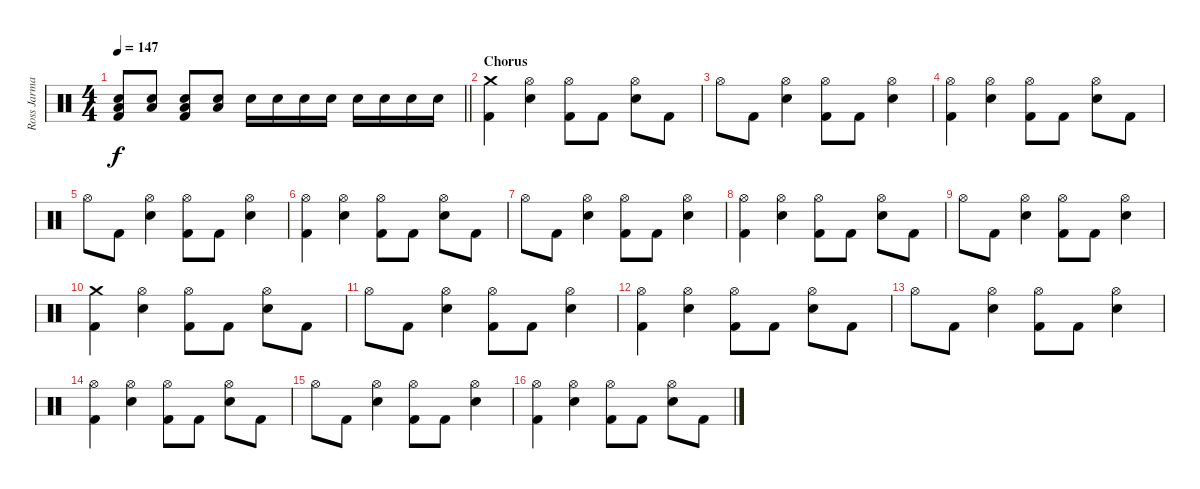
\track ("Ross Jarman (Drums)" "Ross Jarma") {instrument percussion}
\staff {score}
\articulation defaults
\ts (4 4)
\tempo 147
\clef neutral
\barLineRight lightlight
\ks c
("Electric Snare (hit)" "Low Floor Tom (hit)" "Kick (hit) 2").8{dy f} ("Electric Snare (hit)" "Low Floor Tom (hit)").8 ("Electric Snare (hit)" "Low Floor Tom (hit)" "Kick (hit) 2").8 ("Electric Snare (hit)" "Low Floor Tom (hit)").8 "Electric Snare (hit)".16 "Electric Snare (hit)".16 "Electric Snare (hit)".16 "Electric Snare (hit)".16 "Electric Snare (hit)".16 "Electric Snare (hit)".16 "Electric Snare (hit)".16 "Electric Snare (hit)".16 |
\section ("" "Chorus")
("Crash medium (hit)" "Kick (hit) 2").4 ("Hi-Hat (open)" "Electric Snare (hit)").4 ("Hi-Hat (open)" "Kick (hit) 2").8 "Kick (hit) 2".8 ("Hi-Hat (open)" "Electric Snare (hit)").8 "Kick (hit) 2".8 |
"Hi-Hat (open)".8 "Kick (hit) 2".8 ("Hi-Hat (open)" "Electric Snare (hit)").4 ("Hi-Hat (open)" "Kick (hit) 2").8 "Kick (hit) 2".8 ("Hi-Hat (open)" "Electric Snare (hit)").4 |
("Hi-Hat (open)" "Kick (hit) 2").4 ("Hi-Hat (open)" "Electric Snare (hit)").4 ("Hi-Hat (open)" "Kick (hit) 2").8 "Kick (hit) 2".8 ("Hi-Hat (open)" "Electric Snare (hit)").8 "Kick (hit) 2".8 |
"Hi-Hat (open)".8 "Kick (hit) 2".8 ("Hi-Hat (open)" "Electric Snare (hit)").4 ("Hi-Hat (open)" "Kick (hit) 2").8 "Kick (hit) 2".8 ("Hi-Hat (open)" "Electric Snare (hit)").4 |
("Hi-Hat (open)" "Kick (hit) 2").4 ("Hi-Hat (open)" "Electric Snare (hit)").4 ("Hi-Hat (open)" "Kick (hit) 2").8 "Kick (hit) 2".8 ("Hi-Hat (open)" "Electric Snare (hit)").8 "Kick (hit) 2".8 |
"Hi-Hat (open)".8 "Kick (hit) 2".8 ("Hi-Hat (open)" "Electric Snare (hit)").4 ("Hi-Hat (open)" "Kick (hit) 2").8 "Kick (hit) 2".8 ("Hi-Hat (open)" "Electric Snare (hit)").4 |
("Hi-Hat (open)" "Kick (hit) 2").4 ("Hi-Hat (open)" "Electric Snare (hit)").4 ("Hi-Hat (open)" "Kick (hit) 2").8 "Kick (hit) 2".8 ("Hi-Hat (open)" "Electric Snare (hit)").8 "Kick (hit) 2".8 |
"Hi-Hat (open)".8 "Kick (hit) 2".8 ("Hi-Hat (open)" "Electric Snare (hit)").4 ("Hi-Hat (open)" "Kick (hit) 2").8 "Kick (hit) 2".8 ("Hi-Hat (open)" "Electric Snare (hit)").4 |
("Crash medium (hit)" "Kick (hit) 2").4 ("Hi-Hat (open)" "Electric Snare (hit)").4 ("Hi-Hat (open)" "Kick (hit) 2").8 "Kick (hit) 2".8 ("Hi-Hat (open)" "Electric Snare (hit)").8 "Kick (hit) 2".8 |
"Hi-Hat (open)".8 "Kick (hit) 2".8 ("Hi-Hat (open)" "Electric Snare (hit)").4 ("Hi-Hat (open)" "Kick (hit) 2").8 "Kick (hit) 2".8 ("Hi-Hat (open)" "Electric Snare (hit)").4 |
("Hi-Hat (open)" "Kick (hit) 2").4 ("Hi-Hat (open)" "Electric Snare (hit)").4 ("Hi-Hat (open)" "Kick (hit) 2").8 "Kick (hit) 2".8 ("Hi-Hat (open)" "Electric Snare (hit)").8 "Kick (hit) 2".8 |
"Hi-Hat (open)".8 "Kick (hit) 2".8 ("Hi-Hat (open)" "Electric Snare (hit)").4 ("Hi-Hat (open)" "Kick (hit) 2").8 "Kick (hit) 2".8 ("Hi-Hat (open)" "Electric Snare (hit)").4 |
("Hi-Hat (open)" "Kick (hit) 2").4 ("Hi-Hat (open)" "Electric Snare (hit)").4 ("Hi-Hat (open)" "Kick (hit) 2").8 "Kick (hit) 2".8 ("Hi-Hat (open)" "Electric Snare (hit)").8 "Kick (hit) 2".8 |
"Hi-Hat (open)".8 "Kick (hit) 2".8 ("Hi-Hat (open)" "Electric Snare (hit)").4 ("Hi-Hat (open)" "Kick (hit) 2").8 "Kick (hit) 2".8 ("Hi-Hat (open)" "Electric Snare (hit)").4 |
("Hi-Hat (open)" "Kick (hit) 2").4 ("Hi-Hat (open)" "Electric Snare (hit)").4 ("Hi-Hat (open)" "Kick (hit) 2").8 "Kick (hit) 2".8 ("Hi-Hat (open)" "Electric Snare (hit)").8 "Kick (hit) 2".8
